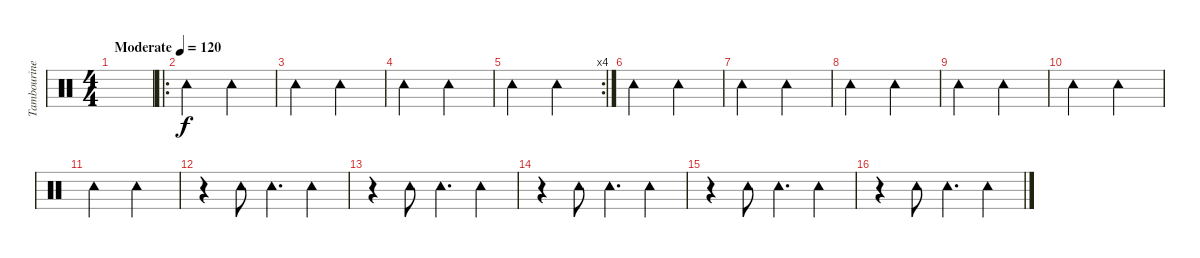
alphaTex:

\track ("Tambourine" "Tambourine") {instrument percussion}
\staff {score}
\articulation defaults
\ts (4 4)
\tempo (120 "Moderate")
\clef neutral
\ks c
|
\ro "Tambourine (hit)".2 "Tambourine (hit)".2
|
"Tambourine (hit)".2 "Tambourine (hit)".2 |
"Tambourine (hit)".2 "Tambourine (hit)".2 |
\rc 4 "Tambourine (hit)".2 "Tambourine (hit)".2
|
"Tambourine (hit)".2 "Tambourine (hit)".2 |
"Tambourine (hit)".2 "Tambourine (hit)".2 |
"Tambourine (hit)".2 "Tambourine (hit)".2 |
"Tambourine (hit)".2 "Tambourine (hit)".2 |
"Tambourine (hit)".2 "Tambourine (hit)".2 |
"Tambourine (hit)".2 "Tambourine (hit)".2 |
r.4 "Tambourine (hit)".8 "Tambourine (hit)".4{d} "Tambourine (hit)".4 |
r.4 "Tambourine (hit)".8 "Tambourine (hit)".4{d} "Tambourine (hit)".4 |
r.4 "Tambourine (hit)".8 "Tambourine (hit)".4{d} "Tambourine (hit)".4 |
r.4 "Tambourine (hit)".8 "Tambourine (hit)".4{d} "Tambourine (hit)".4 |
r.4 "Tambourine (hit)".8 "Tambourine (hit)".4{d} "Tambourine (hit)".4
